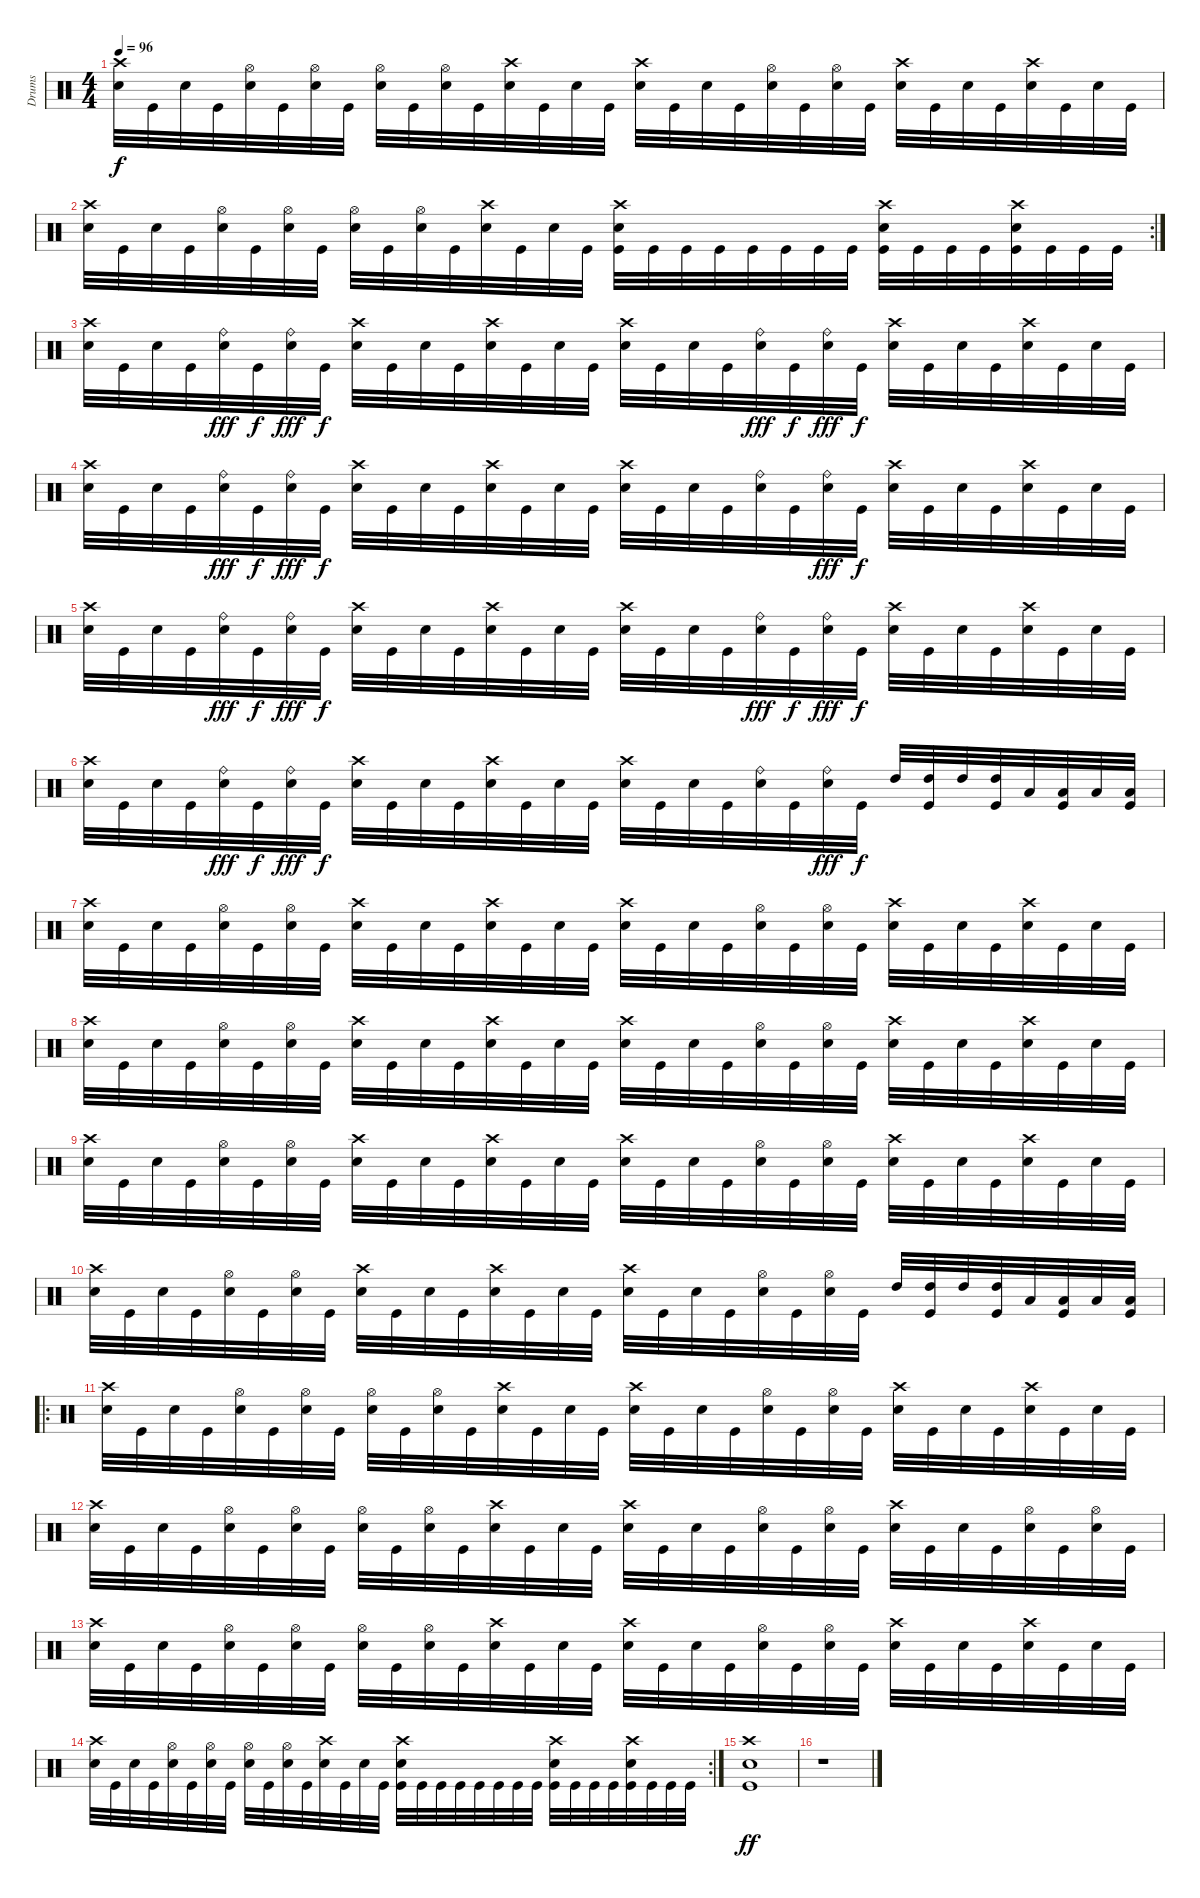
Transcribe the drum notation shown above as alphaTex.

\track ("Drums" "Drums") {instrument percussion}
\staff {score}
\articulation defaults
\ts (4 4)
\tempo 96
\clef neutral
\ks c
("Crash high (hit)" "Snare (hit) 2").32{dy f} "Kick (hit)".32 "Snare (hit) 2".32 "Kick (hit)".32 ("Hi-Hat (open)" "Snare (hit) 2").32 "Kick (hit)".32 ("Hi-Hat (open)" "Snare (hit) 2").32 "Kick (hit)".32 ("Hi-Hat (open)" "Snare (hit) 2").32 "Kick (hit)".32 ("Hi-Hat (open)" "Snare (hit) 2").32 "Kick (hit)".32 ("Crash high (hit)" "Snare (hit) 2").32 "Kick (hit)".32 "Snare (hit) 2".32 "Kick (hit)".32 ("Crash high (hit)" "Snare (hit) 2").32 "Kick (hit)".32 "Snare (hit) 2".32 "Kick (hit)".32 ("Hi-Hat (open)" "Snare (hit) 2").32 "Kick (hit)".32 ("Hi-Hat (open)" "Snare (hit) 2").32 "Kick (hit)".32 ("Crash high (hit)" "Snare (hit) 2").32 "Kick (hit)".32 "Snare (hit) 2".32 "Kick (hit)".32 ("Crash high (hit)" "Snare (hit) 2").32 "Kick (hit)".32 "Snare (hit) 2".32 "Kick (hit)".32 |
\rc 2
("Crash high (hit)" "Snare (hit) 2").32 "Kick (hit)".32 "Snare (hit) 2".32 "Kick (hit)".32 ("Hi-Hat (open)" "Snare (hit) 2").32 "Kick (hit)".32 ("Hi-Hat (open)" "Snare (hit) 2").32 "Kick (hit)".32 ("Hi-Hat (open)" "Snare (hit) 2").32 "Kick (hit)".32 ("Hi-Hat (open)" "Snare (hit) 2").32 "Kick (hit)".32 ("Crash high (hit)" "Snare (hit) 2").32 "Kick (hit)".32 "Snare (hit) 2".32 "Kick (hit)".32 ("Crash high (hit)" "Snare (hit) 2" "Kick (hit)").32 "Kick (hit)".32 "Kick (hit)".32 "Kick (hit)".32 "Kick (hit)".32 "Kick (hit)".32 "Kick (hit)".32 "Kick (hit)".32 ("Crash high (hit)" "Snare (hit) 2" "Kick (hit)").32 "Kick (hit)".32 "Kick (hit)".32 "Kick (hit)".32 ("Crash high (hit)" "Snare (hit) 2" "Kick (hit)").32 "Kick (hit)".32 "Kick (hit)".32 "Kick (hit)".32 |
("Crash high (hit)" "Snare (hit) 2").32 "Kick (hit)".32 "Snare (hit) 2".32 "Kick (hit)".32 ("Ride (bell)" "Snare (hit) 2").32{dy fff} "Kick (hit)".32{dy f} ("Ride (bell)" "Snare (hit) 2").32{dy fff} "Kick (hit)".32{dy f} ("Crash high (hit)" "Snare (hit) 2").32 "Kick (hit)".32 "Snare (hit) 2".32 "Kick (hit)".32 ("Crash high (hit)" "Snare (hit) 2").32 "Kick (hit)".32 "Snare (hit) 2".32 "Kick (hit)".32 ("Crash high (hit)" "Snare (hit) 2").32 "Kick (hit)".32 "Snare (hit) 2".32 "Kick (hit)".32 ("Ride (bell)" "Snare (hit) 2").32{dy fff} "Kick (hit)".32{dy f} ("Ride (bell)" "Snare (hit) 2").32{dy fff} "Kick (hit)".32{dy f} ("Crash high (hit)" "Snare (hit) 2").32 "Kick (hit)".32 "Snare (hit) 2".32 "Kick (hit)".32 ("Crash high (hit)" "Snare (hit) 2").32 "Kick (hit)".32 "Snare (hit) 2".32 "Kick (hit)".32 |
("Crash high (hit)" "Snare (hit) 2").32 "Kick (hit)".32 "Snare (hit) 2".32 "Kick (hit)".32 ("Ride (bell)" "Snare (hit) 2").32{dy fff} "Kick (hit)".32{dy f} ("Ride (bell)" "Snare (hit) 2").32{dy fff} "Kick (hit)".32{dy f} ("Crash high (hit)" "Snare (hit) 2").32 "Kick (hit)".32 "Snare (hit) 2".32 "Kick (hit)".32 ("Crash high (hit)" "Snare (hit) 2").32 "Kick (hit)".32 "Snare (hit) 2".32 "Kick (hit)".32 ("Crash high (hit)" "Snare (hit) 2").32 "Kick (hit)".32 "Snare (hit) 2".32 "Kick (hit)".32 ("Ride (bell)" "Snare (hit) 2").32 "Kick (hit)".32 ("Ride (bell)" "Snare (hit) 2").32{dy fff} "Kick (hit)".32{dy f} ("Crash high (hit)" "Snare (hit) 2").32 "Kick (hit)".32 "Snare (hit) 2".32 "Kick (hit)".32 ("Crash high (hit)" "Snare (hit) 2").32 "Kick (hit)".32 "Snare (hit) 2".32 "Kick (hit)".32 |
("Crash high (hit)" "Snare (hit) 2").32 "Kick (hit)".32 "Snare (hit) 2".32 "Kick (hit)".32 ("Ride (bell)" "Snare (hit) 2").32{dy fff} "Kick (hit)".32{dy f} ("Ride (bell)" "Snare (hit) 2").32{dy fff} "Kick (hit)".32{dy f} ("Crash high (hit)" "Snare (hit) 2").32 "Kick (hit)".32 "Snare (hit) 2".32 "Kick (hit)".32 ("Crash high (hit)" "Snare (hit) 2").32 "Kick (hit)".32 "Snare (hit) 2".32 "Kick (hit)".32 ("Crash high (hit)" "Snare (hit) 2").32 "Kick (hit)".32 "Snare (hit) 2".32 "Kick (hit)".32 ("Ride (bell)" "Snare (hit) 2").32{dy fff} "Kick (hit)".32{dy f} ("Ride (bell)" "Snare (hit) 2").32{dy fff} "Kick (hit)".32{dy f} ("Crash high (hit)" "Snare (hit) 2").32 "Kick (hit)".32 "Snare (hit) 2".32 "Kick (hit)".32 ("Crash high (hit)" "Snare (hit) 2").32 "Kick (hit)".32 "Snare (hit) 2".32 "Kick (hit)".32 |
("Crash high (hit)" "Snare (hit) 2").32 "Kick (hit)".32 "Snare (hit) 2".32 "Kick (hit)".32 ("Ride (bell)" "Snare (hit) 2").32{dy fff} "Kick (hit)".32{dy f} ("Ride (bell)" "Snare (hit) 2").32{dy fff} "Kick (hit)".32{dy f} ("Crash high (hit)" "Snare (hit) 2").32 "Kick (hit)".32 "Snare (hit) 2".32 "Kick (hit)".32 ("Crash high (hit)" "Snare (hit) 2").32 "Kick (hit)".32 "Snare (hit) 2".32 "Kick (hit)".32 ("Crash high (hit)" "Snare (hit) 2").32 "Kick (hit)".32 "Snare (hit) 2".32 "Kick (hit)".32 ("Ride (bell)" "Snare (hit) 2").32 "Kick (hit)".32 ("Ride (bell)" "Snare (hit) 2").32{dy fff} "Kick (hit)".32{dy f} "High Tom (hit)".32 ("High Tom (hit)" "Kick (hit)").32 "High Tom (hit)".32 ("High Tom (hit)" "Kick (hit)").32 "Low Tom (hit)".32 ("Low Tom (hit)" "Kick (hit)").32 "Low Tom (hit)".32 ("Low Tom (hit)" "Kick (hit)").32 |
("Crash high (hit)" "Snare (hit) 2").32 "Kick (hit)".32 "Snare (hit) 2".32 "Kick (hit)".32 ("Hi-Hat (open)" "Snare (hit) 2").32 "Kick (hit)".32 ("Hi-Hat (open)" "Snare (hit) 2").32 "Kick (hit)".32 ("Crash high (hit)" "Snare (hit) 2").32 "Kick (hit)".32 "Snare (hit) 2".32 "Kick (hit)".32 ("Crash high (hit)" "Snare (hit) 2").32 "Kick (hit)".32 "Snare (hit) 2".32 "Kick (hit)".32 ("Crash high (hit)" "Snare (hit) 2").32 "Kick (hit)".32 "Snare (hit) 2".32 "Kick (hit)".32 ("Hi-Hat (open)" "Snare (hit) 2").32 "Kick (hit)".32 ("Hi-Hat (open)" "Snare (hit) 2").32 "Kick (hit)".32 ("Crash high (hit)" "Snare (hit) 2").32 "Kick (hit)".32 "Snare (hit) 2".32 "Kick (hit)".32 ("Crash high (hit)" "Snare (hit) 2").32 "Kick (hit)".32 "Snare (hit) 2".32 "Kick (hit)".32 |
("Crash high (hit)" "Snare (hit) 2").32 "Kick (hit)".32 "Snare (hit) 2".32 "Kick (hit)".32 ("Hi-Hat (open)" "Snare (hit) 2").32 "Kick (hit)".32 ("Hi-Hat (open)" "Snare (hit) 2").32 "Kick (hit)".32 ("Crash high (hit)" "Snare (hit) 2").32 "Kick (hit)".32 "Snare (hit) 2".32 "Kick (hit)".32 ("Crash high (hit)" "Snare (hit) 2").32 "Kick (hit)".32 "Snare (hit) 2".32 "Kick (hit)".32 ("Crash high (hit)" "Snare (hit) 2").32 "Kick (hit)".32 "Snare (hit) 2".32 "Kick (hit)".32 ("Hi-Hat (open)" "Snare (hit) 2").32 "Kick (hit)".32 ("Hi-Hat (open)" "Snare (hit) 2").32 "Kick (hit)".32 ("Crash high (hit)" "Snare (hit) 2").32 "Kick (hit)".32 "Snare (hit) 2".32 "Kick (hit)".32 ("Crash high (hit)" "Snare (hit) 2").32 "Kick (hit)".32 "Snare (hit) 2".32 "Kick (hit)".32 |
("Crash high (hit)" "Snare (hit) 2").32 "Kick (hit)".32 "Snare (hit) 2".32 "Kick (hit)".32 ("Hi-Hat (open)" "Snare (hit) 2").32 "Kick (hit)".32 ("Hi-Hat (open)" "Snare (hit) 2").32 "Kick (hit)".32 ("Crash high (hit)" "Snare (hit) 2").32 "Kick (hit)".32 "Snare (hit) 2".32 "Kick (hit)".32 ("Crash high (hit)" "Snare (hit) 2").32 "Kick (hit)".32 "Snare (hit) 2".32 "Kick (hit)".32 ("Crash high (hit)" "Snare (hit) 2").32 "Kick (hit)".32 "Snare (hit) 2".32 "Kick (hit)".32 ("Hi-Hat (open)" "Snare (hit) 2").32 "Kick (hit)".32 ("Hi-Hat (open)" "Snare (hit) 2").32 "Kick (hit)".32 ("Crash high (hit)" "Snare (hit) 2").32 "Kick (hit)".32 "Snare (hit) 2".32 "Kick (hit)".32 ("Crash high (hit)" "Snare (hit) 2").32 "Kick (hit)".32 "Snare (hit) 2".32 "Kick (hit)".32 |
("Crash high (hit)" "Snare (hit) 2").32 "Kick (hit)".32 "Snare (hit) 2".32 "Kick (hit)".32 ("Hi-Hat (open)" "Snare (hit) 2").32 "Kick (hit)".32 ("Hi-Hat (open)" "Snare (hit) 2").32 "Kick (hit)".32 ("Crash high (hit)" "Snare (hit) 2").32 "Kick (hit)".32 "Snare (hit) 2".32 "Kick (hit)".32 ("Crash high (hit)" "Snare (hit) 2").32 "Kick (hit)".32 "Snare (hit) 2".32 "Kick (hit)".32 ("Crash high (hit)" "Snare (hit) 2").32 "Kick (hit)".32 "Snare (hit) 2".32 "Kick (hit)".32 ("Hi-Hat (open)" "Snare (hit) 2").32 "Kick (hit)".32 ("Hi-Hat (open)" "Snare (hit) 2").32 "Kick (hit)".32 "High Tom (hit)".32 ("High Tom (hit)" "Kick (hit)").32 "High Tom (hit)".32 ("High Tom (hit)" "Kick (hit)").32 "Low Tom (hit)".32 ("Low Tom (hit)" "Kick (hit)").32 "Low Tom (hit)".32 ("Low Tom (hit)" "Kick (hit)").32 |
\ro
("Crash high (hit)" "Snare (hit) 2").32 "Kick (hit)".32 "Snare (hit) 2".32 "Kick (hit)".32 ("Hi-Hat (open)" "Snare (hit) 2").32 "Kick (hit)".32 ("Hi-Hat (open)" "Snare (hit) 2").32 "Kick (hit)".32 ("Hi-Hat (open)" "Snare (hit) 2").32 "Kick (hit)".32 ("Hi-Hat (open)" "Snare (hit) 2").32 "Kick (hit)".32 ("Crash high (hit)" "Snare (hit) 2").32 "Kick (hit)".32 "Snare (hit) 2".32 "Kick (hit)".32 ("Crash high (hit)" "Snare (hit) 2").32 "Kick (hit)".32 "Snare (hit) 2".32 "Kick (hit)".32 ("Hi-Hat (open)" "Snare (hit) 2").32 "Kick (hit)".32 ("Hi-Hat (open)" "Snare (hit) 2").32 "Kick (hit)".32 ("Crash high (hit)" "Snare (hit) 2").32 "Kick (hit)".32 "Snare (hit) 2".32 "Kick (hit)".32 ("Crash high (hit)" "Snare (hit) 2").32 "Kick (hit)".32 "Snare (hit) 2".32 "Kick (hit)".32 |
("Crash high (hit)" "Snare (hit) 2").32 "Kick (hit)".32 "Snare (hit) 2".32 "Kick (hit)".32 ("Hi-Hat (open)" "Snare (hit) 2").32 "Kick (hit)".32 ("Hi-Hat (open)" "Snare (hit) 2").32 "Kick (hit)".32 ("Hi-Hat (open)" "Snare (hit) 2").32 "Kick (hit)".32 ("Hi-Hat (open)" "Snare (hit) 2").32 "Kick (hit)".32 ("Crash high (hit)" "Snare (hit) 2").32 "Kick (hit)".32 "Snare (hit) 2".32 "Kick (hit)".32 ("Crash high (hit)" "Snare (hit) 2").32 "Kick (hit)".32 "Snare (hit) 2".32 "Kick (hit)".32 ("Hi-Hat (open)" "Snare (hit) 2").32 "Kick (hit)".32 ("Hi-Hat (open)" "Snare (hit) 2").32 "Kick (hit)".32 ("Crash high (hit)" "Snare (hit) 2").32 "Kick (hit)".32 "Snare (hit) 2".32 "Kick (hit)".32 ("Hi-Hat (open)" "Snare (hit) 2").32 "Kick (hit)".32 ("Hi-Hat (open)" "Snare (hit) 2").32 "Kick (hit)".32 |
("Crash high (hit)" "Snare (hit) 2").32 "Kick (hit)".32 "Snare (hit) 2".32 "Kick (hit)".32 ("Hi-Hat (open)" "Snare (hit) 2").32 "Kick (hit)".32 ("Hi-Hat (open)" "Snare (hit) 2").32 "Kick (hit)".32 ("Hi-Hat (open)" "Snare (hit) 2").32 "Kick (hit)".32 ("Hi-Hat (open)" "Snare (hit) 2").32 "Kick (hit)".32 ("Crash high (hit)" "Snare (hit) 2").32 "Kick (hit)".32 "Snare (hit) 2".32 "Kick (hit)".32 ("Crash high (hit)" "Snare (hit) 2").32 "Kick (hit)".32 "Snare (hit) 2".32 "Kick (hit)".32 ("Hi-Hat (open)" "Snare (hit) 2").32 "Kick (hit)".32 ("Hi-Hat (open)" "Snare (hit) 2").32 "Kick (hit)".32 ("Crash high (hit)" "Snare (hit) 2").32 "Kick (hit)".32 "Snare (hit) 2".32 "Kick (hit)".32 ("Crash high (hit)" "Snare (hit) 2").32 "Kick (hit)".32 "Snare (hit) 2".32 "Kick (hit)".32 |
\rc 2
("Crash high (hit)" "Snare (hit) 2").32 "Kick (hit)".32 "Snare (hit) 2".32 "Kick (hit)".32 ("Hi-Hat (open)" "Snare (hit) 2").32 "Kick (hit)".32 ("Hi-Hat (open)" "Snare (hit) 2").32 "Kick (hit)".32 ("Hi-Hat (open)" "Snare (hit) 2").32 "Kick (hit)".32 ("Hi-Hat (open)" "Snare (hit) 2").32 "Kick (hit)".32 ("Crash high (hit)" "Snare (hit) 2").32 "Kick (hit)".32 "Snare (hit) 2".32 "Kick (hit)".32 ("Crash high (hit)" "Snare (hit) 2" "Kick (hit)").32 "Kick (hit)".32 "Kick (hit)".32 "Kick (hit)".32 "Kick (hit)".32 "Kick (hit)".32 "Kick (hit)".32 "Kick (hit)".32 ("Crash high (hit)" "Snare (hit) 2" "Kick (hit)").32 "Kick (hit)".32 "Kick (hit)".32 "Kick (hit)".32 ("Crash high (hit)" "Snare (hit) 2" "Kick (hit)").32 "Kick (hit)".32 "Kick (hit)".32 "Kick (hit)".32 |
("Crash high (hit)" "Snare (hit) 2" "Kick (hit)").1{dy ff} |
r.1
